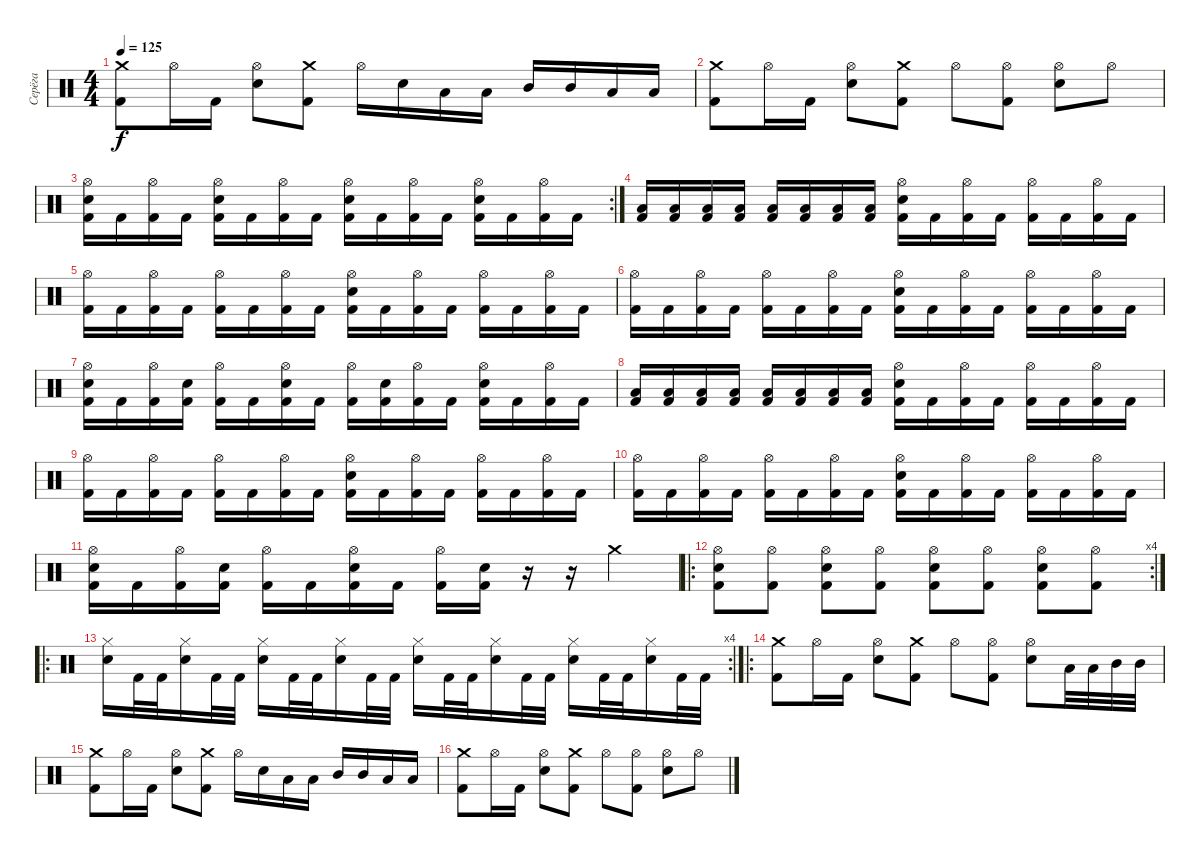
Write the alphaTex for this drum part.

\track ("Серёга" "Серёга") {instrument percussion}
\staff {score}
\articulation defaults
\ts (4 4)
\tempo 125
\clef neutral
\ks c
("Crash medium (hit)" "Kick (hit) 2").8{dy f} "Hi-Hat (open)".16 "Kick (hit) 2".16 ("Hi-Hat (open)" "Electric Snare (hit)").8 ("Crash medium (hit)" "Kick (hit) 2").8 "Hi-Hat (open)".16 "Electric Snare (hit)".16 "Low Tom (hit)".16 "Low Tom (hit)".16 "Mid Tom (hit)".16 "Mid Tom (hit)".16 "Low Floor Tom (hit)".16 "Low Floor Tom (hit)".16 |
("Crash medium (hit)" "Kick (hit) 2").8 "Hi-Hat (open)".16 "Kick (hit) 2".16 ("Hi-Hat (open)" "Electric Snare (hit)").8 ("Crash medium (hit)" "Kick (hit) 2").8 "Hi-Hat (open)".8 ("Hi-Hat (open)" "Kick (hit) 2").8 ("Hi-Hat (open)" "Electric Snare (hit)").8 "Hi-Hat (open)".8 |
\rc 2
("Hi-Hat (open)" "Electric Snare (hit)" "Kick (hit) 2").16 "Kick (hit) 2".16 ("Hi-Hat (open)" "Kick (hit) 2").16 "Kick (hit) 2".16 ("Hi-Hat (open)" "Electric Snare (hit)" "Kick (hit) 2").16 "Kick (hit) 2".16 ("Hi-Hat (open)" "Kick (hit) 2").16 "Kick (hit) 2".16 ("Hi-Hat (open)" "Electric Snare (hit)" "Kick (hit) 2").16 "Kick (hit) 2".16 ("Hi-Hat (open)" "Kick (hit) 2").16 "Kick (hit) 2".16 ("Hi-Hat (open)" "Electric Snare (hit)" "Kick (hit) 2").16 "Kick (hit) 2".16 ("Hi-Hat (open)" "Kick (hit) 2").16 "Kick (hit) 2".16 |
("Kick (hit) 2" "Low Tom (hit)").16 ("Kick (hit) 2" "Low Tom (hit)").16 ("Kick (hit) 2" "Low Tom (hit)").16 ("Kick (hit) 2" "Low Tom (hit)").16 ("Kick (hit) 2" "Low Tom (hit)").16 ("Kick (hit) 2" "Low Tom (hit)").16 ("Kick (hit) 2" "Low Tom (hit)").16 ("Kick (hit) 2" "Low Tom (hit)").16 ("Kick (hit) 2" "Electric Snare (hit)" "Hi-Hat (open)").16 "Kick (hit) 2".16 ("Kick (hit) 2" "Hi-Hat (open)").16 "Kick (hit) 2".16 ("Kick (hit) 2" "Hi-Hat (open)").16 "Kick (hit) 2".16 ("Kick (hit) 2" "Hi-Hat (open)").16 "Kick (hit) 2".16 |
("Kick (hit) 2" "Hi-Hat (open)").16 "Kick (hit) 2".16 ("Kick (hit) 2" "Hi-Hat (open)").16 "Kick (hit) 2".16 ("Kick (hit) 2" "Hi-Hat (open)").16 "Kick (hit) 2".16 ("Kick (hit) 2" "Hi-Hat (open)").16 "Kick (hit) 2".16 ("Kick (hit) 2" "Electric Snare (hit)" "Hi-Hat (open)").16 "Kick (hit) 2".16 ("Kick (hit) 2" "Hi-Hat (open)").16 "Kick (hit) 2".16 ("Kick (hit) 2" "Hi-Hat (open)").16 "Kick (hit) 2".16 ("Kick (hit) 2" "Hi-Hat (open)").16 "Kick (hit) 2".16 |
("Kick (hit) 2" "Hi-Hat (open)").16 "Kick (hit) 2".16 ("Kick (hit) 2" "Hi-Hat (open)").16 "Kick (hit) 2".16 ("Kick (hit) 2" "Hi-Hat (open)").16 "Kick (hit) 2".16 ("Kick (hit) 2" "Hi-Hat (open)").16 "Kick (hit) 2".16 ("Kick (hit) 2" "Electric Snare (hit)" "Hi-Hat (open)").16 "Kick (hit) 2".16 ("Kick (hit) 2" "Hi-Hat (open)").16 "Kick (hit) 2".16 ("Kick (hit) 2" "Hi-Hat (open)").16 "Kick (hit) 2".16 ("Kick (hit) 2" "Hi-Hat (open)").16 "Kick (hit) 2".16 |
("Kick (hit) 2" "Electric Snare (hit)" "Hi-Hat (open)").16 "Kick (hit) 2".16 ("Kick (hit) 2" "Hi-Hat (open)").16 ("Kick (hit) 2" "Electric Snare (hit)").16 ("Kick (hit) 2" "Hi-Hat (open)").16 "Kick (hit) 2".16 ("Kick (hit) 2" "Electric Snare (hit)" "Hi-Hat (open)").16 "Kick (hit) 2".16 ("Kick (hit) 2" "Hi-Hat (open)").16 ("Kick (hit) 2" "Electric Snare (hit)").16 ("Kick (hit) 2" "Hi-Hat (open)").16 "Kick (hit) 2".16 ("Kick (hit) 2" "Electric Snare (hit)" "Hi-Hat (open)").16 "Kick (hit) 2".16 ("Kick (hit) 2" "Hi-Hat (open)").16 "Kick (hit) 2".16 |
("Kick (hit) 2" "Low Tom (hit)").16 ("Kick (hit) 2" "Low Tom (hit)").16 ("Kick (hit) 2" "Low Tom (hit)").16 ("Kick (hit) 2" "Low Tom (hit)").16 ("Kick (hit) 2" "Low Tom (hit)").16 ("Kick (hit) 2" "Low Tom (hit)").16 ("Kick (hit) 2" "Low Tom (hit)").16 ("Kick (hit) 2" "Low Tom (hit)").16 ("Kick (hit) 2" "Electric Snare (hit)" "Hi-Hat (open)").16 "Kick (hit) 2".16 ("Kick (hit) 2" "Hi-Hat (open)").16 "Kick (hit) 2".16 ("Kick (hit) 2" "Hi-Hat (open)").16 "Kick (hit) 2".16 ("Kick (hit) 2" "Hi-Hat (open)").16 "Kick (hit) 2".16 |
("Kick (hit) 2" "Hi-Hat (open)").16 "Kick (hit) 2".16 ("Kick (hit) 2" "Hi-Hat (open)").16 "Kick (hit) 2".16 ("Kick (hit) 2" "Hi-Hat (open)").16 "Kick (hit) 2".16 ("Kick (hit) 2" "Hi-Hat (open)").16 "Kick (hit) 2".16 ("Kick (hit) 2" "Electric Snare (hit)" "Hi-Hat (open)").16 "Kick (hit) 2".16 ("Kick (hit) 2" "Hi-Hat (open)").16 "Kick (hit) 2".16 ("Kick (hit) 2" "Hi-Hat (open)").16 "Kick (hit) 2".16 ("Kick (hit) 2" "Hi-Hat (open)").16 "Kick (hit) 2".16 |
("Kick (hit) 2" "Hi-Hat (open)").16 "Kick (hit) 2".16 ("Kick (hit) 2" "Hi-Hat (open)").16 "Kick (hit) 2".16 ("Kick (hit) 2" "Hi-Hat (open)").16 "Kick (hit) 2".16 ("Kick (hit) 2" "Hi-Hat (open)").16 "Kick (hit) 2".16 ("Kick (hit) 2" "Electric Snare (hit)" "Hi-Hat (open)").16 "Kick (hit) 2".16 ("Kick (hit) 2" "Hi-Hat (open)").16 "Kick (hit) 2".16 ("Kick (hit) 2" "Hi-Hat (open)").16 "Kick (hit) 2".16 ("Kick (hit) 2" "Hi-Hat (open)").16 "Kick (hit) 2".16 |
("Kick (hit) 2" "Electric Snare (hit)" "Hi-Hat (open)").16 "Kick (hit) 2".16 ("Kick (hit) 2" "Hi-Hat (open)").16 ("Kick (hit) 2" "Electric Snare (hit)").16 ("Kick (hit) 2" "Hi-Hat (open)").16 "Kick (hit) 2".16 ("Kick (hit) 2" "Electric Snare (hit)" "Hi-Hat (open)").16 "Kick (hit) 2".16 ("Kick (hit) 2" "Hi-Hat (open)").16 ("Kick (hit) 2" "Electric Snare (hit)").16 r.16 r.16 "Crash medium (hit)".4 |
\ro
\rc 4
("Hi-Hat (open)" "Electric Snare (hit)" "Kick (hit) 2").8 ("Hi-Hat (open)" "Kick (hit) 2").8 ("Hi-Hat (open)" "Electric Snare (hit)" "Kick (hit) 2").8 ("Hi-Hat (open)" "Kick (hit) 2").8 ("Hi-Hat (open)" "Electric Snare (hit)" "Kick (hit) 2").8 ("Hi-Hat (open)" "Kick (hit) 2").8 ("Hi-Hat (open)" "Electric Snare (hit)" "Kick (hit) 2").8 ("Hi-Hat (open)" "Kick (hit) 2").8 |
\ro
\rc 4
("Hi-Hat (closed)" "Electric Snare (hit)").16 "Kick (hit) 2".32 "Kick (hit) 2".32 ("Hi-Hat (closed)" "Electric Snare (hit)").16 "Kick (hit) 2".32 "Kick (hit) 2".32 ("Hi-Hat (closed)" "Electric Snare (hit)").16 "Kick (hit) 2".32 "Kick (hit) 2".32 ("Hi-Hat (closed)" "Electric Snare (hit)").16 "Kick (hit) 2".32 "Kick (hit) 2".32 ("Hi-Hat (closed)" "Electric Snare (hit)").16 "Kick (hit) 2".32 "Kick (hit) 2".32 ("Hi-Hat (closed)" "Electric Snare (hit)").16 "Kick (hit) 2".32 "Kick (hit) 2".32 ("Hi-Hat (closed)" "Electric Snare (hit)").16 "Kick (hit) 2".32 "Kick (hit) 2".32 ("Hi-Hat (closed)" "Electric Snare (hit)").16 "Kick (hit) 2".32 "Kick (hit) 2".32 |
\ro
("Crash medium (hit)" "Kick (hit) 2").8 "Hi-Hat (open)".16 "Kick (hit) 2".16 ("Hi-Hat (open)" "Electric Snare (hit)").8 ("Crash medium (hit)" "Kick (hit) 2").8 "Hi-Hat (open)".8 ("Hi-Hat (open)" "Kick (hit) 2").8 ("Hi-Hat (open)" "Electric Snare (hit)").8 "Low Tom (hit)".32 "Low Tom (hit)".32 "Mid Tom (hit)".32 "Mid Tom (hit)".32 |
("Crash medium (hit)" "Kick (hit) 2").8 "Hi-Hat (open)".16 "Kick (hit) 2".16 ("Hi-Hat (open)" "Electric Snare (hit)").8 ("Crash medium (hit)" "Kick (hit) 2").8 "Hi-Hat (open)".16 "Electric Snare (hit)".16 "Low Tom (hit)".16 "Low Tom (hit)".16 "Mid Tom (hit)".16 "Mid Tom (hit)".16 "Low Floor Tom (hit)".16 "Low Floor Tom (hit)".16 |
("Crash medium (hit)" "Kick (hit) 2").8 "Hi-Hat (open)".16 "Kick (hit) 2".16 ("Hi-Hat (open)" "Electric Snare (hit)").8 ("Crash medium (hit)" "Kick (hit) 2").8 "Hi-Hat (open)".8 ("Hi-Hat (open)" "Kick (hit) 2").8 ("Hi-Hat (open)" "Electric Snare (hit)").8 "Hi-Hat (open)".8
